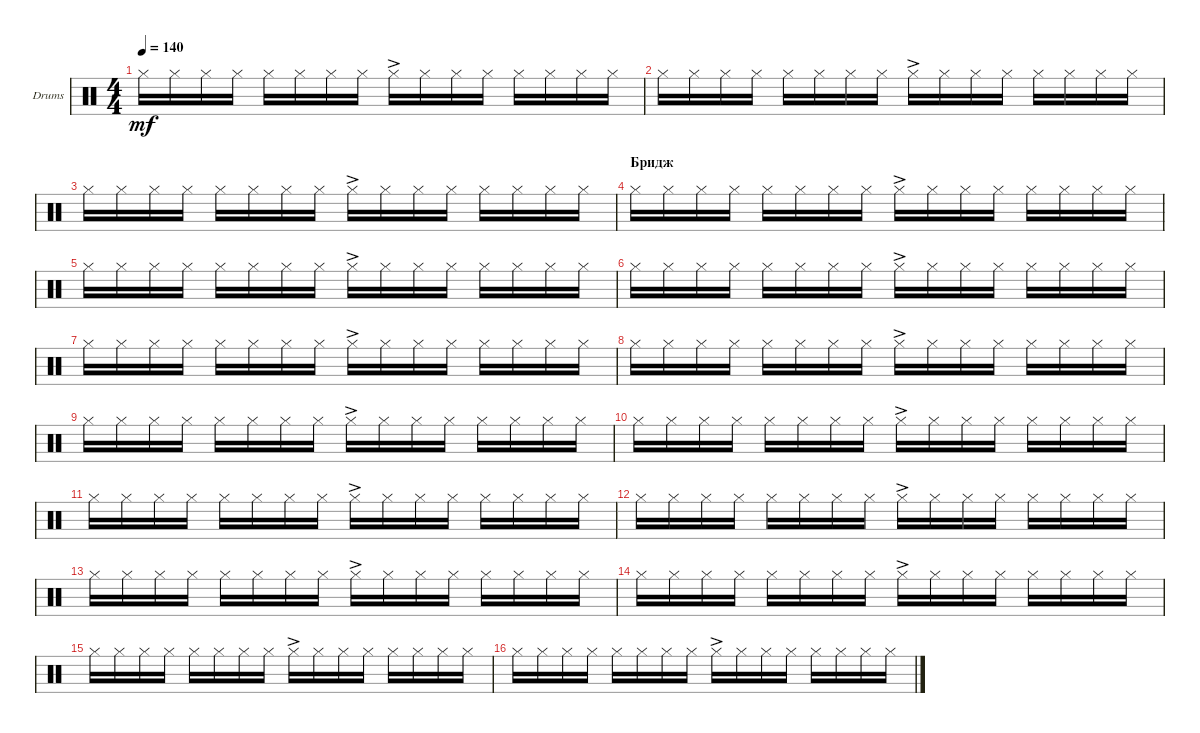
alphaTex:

\defaultSystemsLayout 4
\bracketExtendMode groupsimilarinstruments
\firstSystemTrackNameOrientation horizontal
\otherSystemsTrackNameOrientation horizontal
\track ("Ударные" "Drums") {instrument percussion}
\staff {score}
\articulation defaults
\ts (4 4)
\tempo 140
\clef neutral
\scale
0.333333
\ks c "Hi-Hat (closed)".16{dy mf} "Hi-Hat (closed)".16 "Hi-Hat (closed)".16 "Hi-Hat (closed)".16 "Hi-Hat (closed)".16 "Hi-Hat (closed)".16 "Hi-Hat (closed)".16 "Hi-Hat (closed)".16 "Hi-Hat (closed)"{ac}.16 "Hi-Hat (closed)".16 "Hi-Hat (closed)".16 "Hi-Hat (closed)".16 "Hi-Hat (closed)".16 "Hi-Hat (closed)".16 "Hi-Hat (closed)".16 "Hi-Hat (closed)".16
|
\scale
0.333333 "Hi-Hat (closed)".16 "Hi-Hat (closed)".16 "Hi-Hat (closed)".16 "Hi-Hat (closed)".16 "Hi-Hat (closed)".16 "Hi-Hat (closed)".16 "Hi-Hat (closed)".16 "Hi-Hat (closed)".16 "Hi-Hat (closed)"{ac}.16 "Hi-Hat (closed)".16 "Hi-Hat (closed)".16 "Hi-Hat (closed)".16 "Hi-Hat (closed)".16 "Hi-Hat (closed)".16 "Hi-Hat (closed)".16 "Hi-Hat (closed)".16 |
\scale
0.333333 "Hi-Hat (closed)".16 "Hi-Hat (closed)".16 "Hi-Hat (closed)".16 "Hi-Hat (closed)".16 "Hi-Hat (closed)".16 "Hi-Hat (closed)".16 "Hi-Hat (closed)".16 "Hi-Hat (closed)".16 "Hi-Hat (closed)"{ac}.16 "Hi-Hat (closed)".16 "Hi-Hat (closed)".16 "Hi-Hat (closed)".16 "Hi-Hat (closed)".16 "Hi-Hat (closed)".16 "Hi-Hat (closed)".16 "Hi-Hat (closed)".16 |
\section ("" "Бридж")
\scale
0.333333 "Hi-Hat (closed)".16 "Hi-Hat (closed)".16 "Hi-Hat (closed)".16 "Hi-Hat (closed)".16 "Hi-Hat (closed)".16 "Hi-Hat (closed)".16 "Hi-Hat (closed)".16 "Hi-Hat (closed)".16 "Hi-Hat (closed)"{ac}.16 "Hi-Hat (closed)".16 "Hi-Hat (closed)".16 "Hi-Hat (closed)".16 "Hi-Hat (closed)".16 "Hi-Hat (closed)".16 "Hi-Hat (closed)".16 "Hi-Hat (closed)".16 |
\scale
0.333333 "Hi-Hat (closed)".16 "Hi-Hat (closed)".16 "Hi-Hat (closed)".16 "Hi-Hat (closed)".16 "Hi-Hat (closed)".16 "Hi-Hat (closed)".16 "Hi-Hat (closed)".16 "Hi-Hat (closed)".16 "Hi-Hat (closed)"{ac}.16 "Hi-Hat (closed)".16 "Hi-Hat (closed)".16 "Hi-Hat (closed)".16 "Hi-Hat (closed)".16 "Hi-Hat (closed)".16 "Hi-Hat (closed)".16 "Hi-Hat (closed)".16 |
\scale
0.333333 "Hi-Hat (closed)".16 "Hi-Hat (closed)".16 "Hi-Hat (closed)".16 "Hi-Hat (closed)".16 "Hi-Hat (closed)".16 "Hi-Hat (closed)".16 "Hi-Hat (closed)".16 "Hi-Hat (closed)".16 "Hi-Hat (closed)"{ac}.16 "Hi-Hat (closed)".16 "Hi-Hat (closed)".16 "Hi-Hat (closed)".16 "Hi-Hat (closed)".16 "Hi-Hat (closed)".16 "Hi-Hat (closed)".16 "Hi-Hat (closed)".16 |
\scale
0.333333 "Hi-Hat (closed)".16 "Hi-Hat (closed)".16 "Hi-Hat (closed)".16 "Hi-Hat (closed)".16 "Hi-Hat (closed)".16 "Hi-Hat (closed)".16 "Hi-Hat (closed)".16 "Hi-Hat (closed)".16 "Hi-Hat (closed)"{ac}.16 "Hi-Hat (closed)".16 "Hi-Hat (closed)".16 "Hi-Hat (closed)".16 "Hi-Hat (closed)".16 "Hi-Hat (closed)".16 "Hi-Hat (closed)".16 "Hi-Hat (closed)".16 |
\scale
0.333333 "Hi-Hat (closed)".16 "Hi-Hat (closed)".16 "Hi-Hat (closed)".16 "Hi-Hat (closed)".16 "Hi-Hat (closed)".16 "Hi-Hat (closed)".16 "Hi-Hat (closed)".16 "Hi-Hat (closed)".16 "Hi-Hat (closed)"{ac}.16 "Hi-Hat (closed)".16 "Hi-Hat (closed)".16 "Hi-Hat (closed)".16 "Hi-Hat (closed)".16 "Hi-Hat (closed)".16 "Hi-Hat (closed)".16 "Hi-Hat (closed)".16 |
\scale
0.333333 "Hi-Hat (closed)".16 "Hi-Hat (closed)".16 "Hi-Hat (closed)".16 "Hi-Hat (closed)".16 "Hi-Hat (closed)".16 "Hi-Hat (closed)".16 "Hi-Hat (closed)".16 "Hi-Hat (closed)".16 "Hi-Hat (closed)"{ac}.16 "Hi-Hat (closed)".16 "Hi-Hat (closed)".16 "Hi-Hat (closed)".16 "Hi-Hat (closed)".16 "Hi-Hat (closed)".16 "Hi-Hat (closed)".16 "Hi-Hat (closed)".16 |
\scale
0.333333 "Hi-Hat (closed)".16 "Hi-Hat (closed)".16 "Hi-Hat (closed)".16 "Hi-Hat (closed)".16 "Hi-Hat (closed)".16 "Hi-Hat (closed)".16 "Hi-Hat (closed)".16 "Hi-Hat (closed)".16 "Hi-Hat (closed)"{ac}.16 "Hi-Hat (closed)".16 "Hi-Hat (closed)".16 "Hi-Hat (closed)".16 "Hi-Hat (closed)".16 "Hi-Hat (closed)".16 "Hi-Hat (closed)".16 "Hi-Hat (closed)".16 |
\scale
0.333333 "Hi-Hat (closed)".16 "Hi-Hat (closed)".16 "Hi-Hat (closed)".16 "Hi-Hat (closed)".16 "Hi-Hat (closed)".16 "Hi-Hat (closed)".16 "Hi-Hat (closed)".16 "Hi-Hat (closed)".16 "Hi-Hat (closed)"{ac}.16 "Hi-Hat (closed)".16 "Hi-Hat (closed)".16 "Hi-Hat (closed)".16 "Hi-Hat (closed)".16 "Hi-Hat (closed)".16 "Hi-Hat (closed)".16 "Hi-Hat (closed)".16 |
\scale
0.333333 "Hi-Hat (closed)".16 "Hi-Hat (closed)".16 "Hi-Hat (closed)".16 "Hi-Hat (closed)".16 "Hi-Hat (closed)".16 "Hi-Hat (closed)".16 "Hi-Hat (closed)".16 "Hi-Hat (closed)".16 "Hi-Hat (closed)"{ac}.16 "Hi-Hat (closed)".16 "Hi-Hat (closed)".16 "Hi-Hat (closed)".16 "Hi-Hat (closed)".16 "Hi-Hat (closed)".16 "Hi-Hat (closed)".16 "Hi-Hat (closed)".16 |
\scale
0.333333 "Hi-Hat (closed)".16 "Hi-Hat (closed)".16 "Hi-Hat (closed)".16 "Hi-Hat (closed)".16 "Hi-Hat (closed)".16 "Hi-Hat (closed)".16 "Hi-Hat (closed)".16 "Hi-Hat (closed)".16 "Hi-Hat (closed)"{ac}.16 "Hi-Hat (closed)".16 "Hi-Hat (closed)".16 "Hi-Hat (closed)".16 "Hi-Hat (closed)".16 "Hi-Hat (closed)".16 "Hi-Hat (closed)".16 "Hi-Hat (closed)".16 |
\scale
0.333333 "Hi-Hat (closed)".16 "Hi-Hat (closed)".16 "Hi-Hat (closed)".16 "Hi-Hat (closed)".16 "Hi-Hat (closed)".16 "Hi-Hat (closed)".16 "Hi-Hat (closed)".16 "Hi-Hat (closed)".16 "Hi-Hat (closed)"{ac}.16 "Hi-Hat (closed)".16 "Hi-Hat (closed)".16 "Hi-Hat (closed)".16 "Hi-Hat (closed)".16 "Hi-Hat (closed)".16 "Hi-Hat (closed)".16 "Hi-Hat (closed)".16 |
\scale
0.333333 "Hi-Hat (closed)".16 "Hi-Hat (closed)".16 "Hi-Hat (closed)".16 "Hi-Hat (closed)".16 "Hi-Hat (closed)".16 "Hi-Hat (closed)".16 "Hi-Hat (closed)".16 "Hi-Hat (closed)".16 "Hi-Hat (closed)"{ac}.16 "Hi-Hat (closed)".16 "Hi-Hat (closed)".16 "Hi-Hat (closed)".16 "Hi-Hat (closed)".16 "Hi-Hat (closed)".16 "Hi-Hat (closed)".16 "Hi-Hat (closed)".16 |
\scale
0.333333 "Hi-Hat (closed)".16 "Hi-Hat (closed)".16 "Hi-Hat (closed)".16 "Hi-Hat (closed)".16 "Hi-Hat (closed)".16 "Hi-Hat (closed)".16 "Hi-Hat (closed)".16 "Hi-Hat (closed)".16 "Hi-Hat (closed)"{ac}.16 "Hi-Hat (closed)".16 "Hi-Hat (closed)".16 "Hi-Hat (closed)".16 "Hi-Hat (closed)".16 "Hi-Hat (closed)".16 "Hi-Hat (closed)".16 "Hi-Hat (closed)".16
